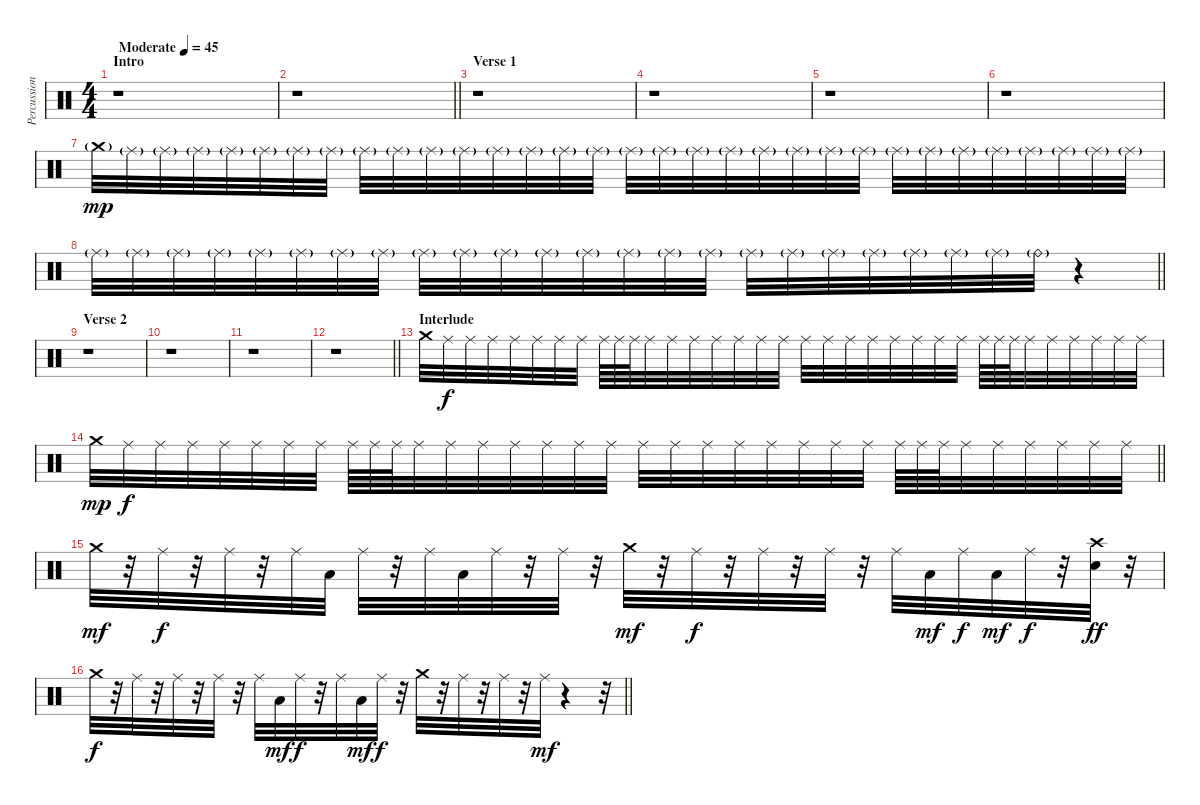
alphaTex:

\track ("Percussioni" "Percussion") {instrument percussion}
\staff {score}
\articulation defaults
\ts (4 4)
\section ("" "Intro")
\tempo (45 "Moderate")
\clef neutral
\ks c
r.1{dy mp} |
\barLineRight lightlight
r.1 |
\section ("" "Verse 1")
r.1 |
r.1 |
r.1 |
r.1 |
"Crash medium (hit)"{g}.32 "Ride (middle)"{g}.32 "Ride (middle)"{g}.32 "Ride (middle)"{g}.32 "Ride (middle)"{g}.32 "Ride (middle)"{g}.32 "Ride (middle)"{g}.32 "Ride (middle)"{g}.32 "Ride (middle)"{g}.32 "Ride (middle)"{g}.32 "Ride (middle)"{g}.32 "Ride (middle)"{g}.32 "Ride (middle)"{g}.32 "Ride (middle)"{g}.32 "Ride (middle)"{g}.32 "Ride (middle)"{g}.32 "Ride (middle)"{g}.32 "Ride (middle)"{g}.32 "Ride (middle)"{g}.32 "Ride (middle)"{g}.32 "Ride (middle)"{g}.32 "Ride (middle)"{g}.32 "Ride (middle)"{g}.32 "Ride (middle)"{g}.32 "Ride (middle)"{g}.32 "Ride (middle)"{g}.32 "Ride (middle)"{g}.32 "Ride (middle)"{g}.32 "Ride (middle)"{g}.32 "Ride (middle)"{g}.32 "Ride (middle)"{g}.32 "Ride (middle)"{g}.32 |
\barLineRight lightlight "Ride (middle)"{g}.32 "Ride (middle)"{g}.32 "Ride (middle)"{g}.32 "Ride (middle)"{g}.32 "Ride (middle)"{g}.32 "Ride (middle)"{g}.32 "Ride (middle)"{g}.32 "Ride (middle)"{g}.32 "Ride (middle)"{g}.32 "Ride (middle)"{g}.32 "Ride (middle)"{g}.32 "Ride (middle)"{g}.32 "Ride (middle)"{g}.32 "Ride (middle)"{g}.32 "Ride (middle)"{g}.32 "Ride (middle)"{g}.32 "Ride (middle)"{g}.32 "Ride (middle)"{g}.32 "Ride (middle)"{g}.32 "Ride (middle)"{g}.32 "Ride (middle)"{g}.32 "Ride (middle)"{g}.32 "Ride (middle)"{g}.32 "Ride (bell)"{g}.32
r.4 |
\section ("" "Verse 2")
r.1 |
r.1 |
r.1 |
\barLineRight lightlight
r.1 |
\section ("" "Interlude")
"Crash medium (hit)".32 "Ride (middle)".32{dy f} "Ride (middle)".32 "Ride (middle)".32 "Ride (middle)".32 "Ride (middle)".32 "Ride (middle)".32 "Ride (middle)".32 "Ride (middle)".64 "Ride (middle)".64 "Ride (middle)".64 "Ride (middle)".32 "Ride (middle)".32 "Ride (middle)".32 "Ride (middle)".32 "Ride (middle)".32 "Ride (middle)".32 "Ride (middle)".32 "Ride (middle)".32 "Ride (middle)".32 "Ride (middle)".32 "Ride (middle)".32 "Ride (middle)".32 "Ride (middle)".32 "Ride (middle)".32 "Ride (middle)".32 "Ride (middle)".64 "Ride (middle)".64 "Ride (middle)".64 "Ride (middle)".32 "Ride (middle)".32 "Ride (middle)".32 "Ride (middle)".32 "Ride (middle)".32 "Ride (middle)".32 |
\barLineRight lightlight "Crash medium (hit)".32{dy mp} "Ride (middle)".32{dy f} "Ride (middle)".32 "Ride (middle)".32 "Ride (middle)".32 "Ride (middle)".32 "Ride (middle)".32 "Ride (middle)".32 "Ride (middle)".64 "Ride (middle)".64 "Ride (middle)".64 "Ride (middle)".32 "Ride (middle)".32 "Ride (middle)".32 "Ride (middle)".32 "Ride (middle)".32 "Ride (middle)".32 "Ride (middle)".32 "Ride (middle)".32 "Ride (middle)".32 "Ride (middle)".32 "Ride (middle)".32 "Ride (middle)".32 "Ride (middle)".32 "Ride (middle)".32 "Ride (middle)".32 "Ride (middle)".64 "Ride (middle)".64 "Ride (middle)".64 "Ride (middle)".32 "Ride (middle)".32 "Ride (middle)".32 "Ride (middle)".32 "Ride (middle)".32 "Ride (middle)".32
|
"Crash medium (hit)".32{dy mf} r.32 "Ride (middle)".32{dy f} r.32 "Ride (middle)".32 r.32 "Ride (middle)".32 "Low Tom (hit)".32 "Ride (middle)".32 r.32 "Ride (middle)".32 "Low Floor Tom (hit)".32 "Ride (middle)".32 r.32 "Ride (middle)".32 r.32 "Crash medium (hit)".32{dy mf} r.32 "Ride (middle)".32{dy f} r.32 "Ride (middle)".32 r.32 "Ride (middle)".32 r.32 "Ride (middle)".32 "Low Tom (hit)".32{dy mf} "Ride (middle)".32{dy f} "Low Floor Tom (hit)".32{dy mf} "Ride (middle)".32{dy f} r.32 ("Crash high (hit)" "Snare (hit) 2").32{dy ff} r.32 |
\barLineRight lightlight "Crash medium (hit)".32{dy f}
r.32 "Ride (middle)".32 r.32 "Ride (middle)".32 r.32 "Ride (middle)".32 r.32 "Ride (middle)".32 "Low Tom (hit)".32{dy mf} "Ride (middle)".32{dy f} r.32 "Ride (middle)".32 "Low Floor Tom (hit)".32{dy mf} "Ride (middle)".32{dy f} r.32 "Crash medium (hit)".32 r.32 "Ride (middle)".32 r.32 "Ride (middle)".32 r.32 "Ride (middle)".32{dy mf} r.4 r.32
